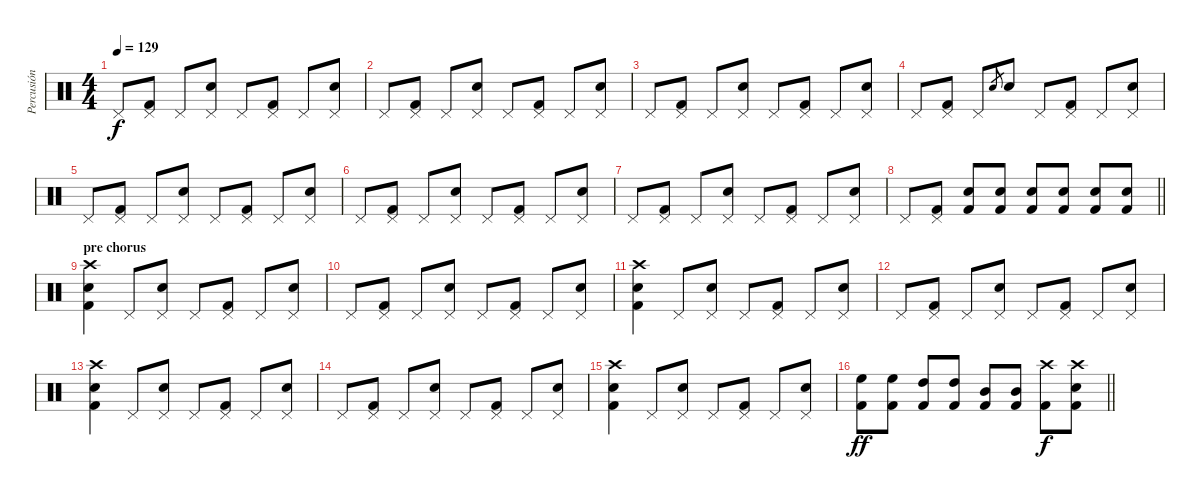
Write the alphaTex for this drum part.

\track ("Percusión" "Percusión") {instrument percussion}
\staff {score}
\articulation defaults
\ts (4 4)
\tempo 129
\clef neutral
\ks c "Pedal Hi-Hat (hit)".8{dy f}
("Pedal Hi-Hat (hit)" "Kick (hit) 2").8 "Pedal Hi-Hat (hit)".8 ("Electric Snare (hit)" "Pedal Hi-Hat (hit)").8 "Pedal Hi-Hat (hit)".8 ("Pedal Hi-Hat (hit)" "Kick (hit) 2").8 "Pedal Hi-Hat (hit)".8 ("Electric Snare (hit)" "Pedal Hi-Hat (hit)").8 |
"Pedal Hi-Hat (hit)".8 ("Pedal Hi-Hat (hit)" "Kick (hit) 2").8 "Pedal Hi-Hat (hit)".8 ("Electric Snare (hit)" "Pedal Hi-Hat (hit)").8 "Pedal Hi-Hat (hit)".8 ("Pedal Hi-Hat (hit)" "Kick (hit) 2").8 "Pedal Hi-Hat (hit)".8 ("Electric Snare (hit)" "Pedal Hi-Hat (hit)").8 |
"Pedal Hi-Hat (hit)".8 ("Pedal Hi-Hat (hit)" "Kick (hit) 2").8 "Pedal Hi-Hat (hit)".8 ("Electric Snare (hit)" "Pedal Hi-Hat (hit)").8 "Pedal Hi-Hat (hit)".8 ("Pedal Hi-Hat (hit)" "Kick (hit) 2").8 "Pedal Hi-Hat (hit)".8 ("Electric Snare (hit)" "Pedal Hi-Hat (hit)").8 |
"Pedal Hi-Hat (hit)".8 ("Pedal Hi-Hat (hit)" "Kick (hit) 2").8 "Pedal Hi-Hat (hit)".8 "Snare (hit) 2".8{gr} "Electric Snare (hit)".8 "Pedal Hi-Hat (hit)".8 ("Pedal Hi-Hat (hit)" "Kick (hit) 2").8 "Pedal Hi-Hat (hit)".8 ("Electric Snare (hit)" "Pedal Hi-Hat (hit)").8 |
"Pedal Hi-Hat (hit)".8 ("Pedal Hi-Hat (hit)" "Kick (hit) 2").8 "Pedal Hi-Hat (hit)".8 ("Electric Snare (hit)" "Pedal Hi-Hat (hit)").8 "Pedal Hi-Hat (hit)".8 ("Pedal Hi-Hat (hit)" "Kick (hit) 2").8 "Pedal Hi-Hat (hit)".8 ("Electric Snare (hit)" "Pedal Hi-Hat (hit)").8 |
"Pedal Hi-Hat (hit)".8 ("Pedal Hi-Hat (hit)" "Kick (hit) 2").8 "Pedal Hi-Hat (hit)".8 ("Electric Snare (hit)" "Pedal Hi-Hat (hit)").8 "Pedal Hi-Hat (hit)".8 ("Pedal Hi-Hat (hit)" "Kick (hit) 2").8 "Pedal Hi-Hat (hit)".8 ("Electric Snare (hit)" "Pedal Hi-Hat (hit)").8 |
"Pedal Hi-Hat (hit)".8 ("Pedal Hi-Hat (hit)" "Kick (hit) 2").8 "Pedal Hi-Hat (hit)".8 ("Electric Snare (hit)" "Pedal Hi-Hat (hit)").8 "Pedal Hi-Hat (hit)".8 ("Pedal Hi-Hat (hit)" "Kick (hit) 2").8 "Pedal Hi-Hat (hit)".8 ("Electric Snare (hit)" "Pedal Hi-Hat (hit)").8 |
\barLineRight lightlight "Pedal Hi-Hat (hit)".8
("Pedal Hi-Hat (hit)" "Kick (hit) 2").8 ("Electric Snare (hit)" "Kick (hit) 2").8 ("Electric Snare (hit)" "Kick (hit) 2").8 ("Electric Snare (hit)" "Kick (hit) 2").8 ("Electric Snare (hit)" "Kick (hit) 2").8 ("Electric Snare (hit)" "Kick (hit) 2").8 ("Electric Snare (hit)" "Kick (hit) 2").8 |
\section ("" "pre chorus")
("Crash high (hit)" "Electric Snare (hit)" "Kick (hit) 2").4 "Pedal Hi-Hat (hit)".8 ("Electric Snare (hit)" "Pedal Hi-Hat (hit)").8 "Pedal Hi-Hat (hit)".8 ("Pedal Hi-Hat (hit)" "Kick (hit) 2").8 "Pedal Hi-Hat (hit)".8 ("Electric Snare (hit)" "Pedal Hi-Hat (hit)").8 |
"Pedal Hi-Hat (hit)".8 ("Pedal Hi-Hat (hit)" "Kick (hit) 2").8 "Pedal Hi-Hat (hit)".8 ("Electric Snare (hit)" "Pedal Hi-Hat (hit)").8 "Pedal Hi-Hat (hit)".8 ("Pedal Hi-Hat (hit)" "Kick (hit) 2").8 "Pedal Hi-Hat (hit)".8 ("Electric Snare (hit)" "Pedal Hi-Hat (hit)").8 |
("Crash high (hit)" "Electric Snare (hit)" "Kick (hit) 2").4 "Pedal Hi-Hat (hit)".8 ("Electric Snare (hit)" "Pedal Hi-Hat (hit)").8 "Pedal Hi-Hat (hit)".8 ("Pedal Hi-Hat (hit)" "Kick (hit) 2").8 "Pedal Hi-Hat (hit)".8 ("Electric Snare (hit)" "Pedal Hi-Hat (hit)").8 |
"Pedal Hi-Hat (hit)".8 ("Pedal Hi-Hat (hit)" "Kick (hit) 2").8 "Pedal Hi-Hat (hit)".8 ("Electric Snare (hit)" "Pedal Hi-Hat (hit)").8 "Pedal Hi-Hat (hit)".8 ("Pedal Hi-Hat (hit)" "Kick (hit) 2").8 "Pedal Hi-Hat (hit)".8 ("Electric Snare (hit)" "Pedal Hi-Hat (hit)").8 |
("Crash high (hit)" "Electric Snare (hit)" "Kick (hit) 2").4 "Pedal Hi-Hat (hit)".8 ("Electric Snare (hit)" "Pedal Hi-Hat (hit)").8 "Pedal Hi-Hat (hit)".8 ("Pedal Hi-Hat (hit)" "Kick (hit) 2").8 "Pedal Hi-Hat (hit)".8 ("Electric Snare (hit)" "Pedal Hi-Hat (hit)").8 |
"Pedal Hi-Hat (hit)".8 ("Pedal Hi-Hat (hit)" "Kick (hit) 2").8 "Pedal Hi-Hat (hit)".8 ("Electric Snare (hit)" "Pedal Hi-Hat (hit)").8 "Pedal Hi-Hat (hit)".8 ("Pedal Hi-Hat (hit)" "Kick (hit) 2").8 "Pedal Hi-Hat (hit)".8 ("Electric Snare (hit)" "Pedal Hi-Hat (hit)").8 |
("Crash high (hit)" "Electric Snare (hit)" "Kick (hit) 2").4 "Pedal Hi-Hat (hit)".8 ("Electric Snare (hit)" "Pedal Hi-Hat (hit)").8 "Pedal Hi-Hat (hit)".8 ("Pedal Hi-Hat (hit)" "Kick (hit) 2").8 "Pedal Hi-Hat (hit)".8 ("Electric Snare (hit)" "Pedal Hi-Hat (hit)").8 |
\barLineRight lightlight
("High Floor Tom (hit)" "Kick (hit) 2").8{dy ff} ("High Floor Tom (hit)" "Kick (hit) 2").8 ("High Tom (hit)" "Kick (hit) 2").8 ("High Tom (hit)" "Kick (hit) 2").8 ("Mid Tom (hit)" "Kick (hit) 2").8 ("Mid Tom (hit)" "Kick (hit) 2").8 ("Crash high (hit)" "Kick (hit) 2").8{dy f} ("Crash high (hit)" "Electric Snare (hit)" "Kick (hit) 2").8
